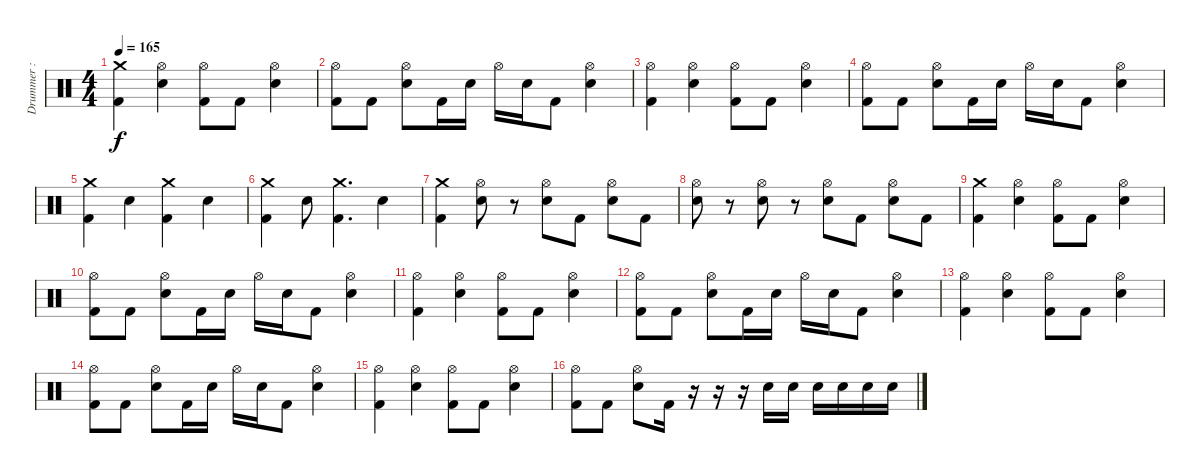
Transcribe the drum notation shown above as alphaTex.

\track ("Drummer : Tainaka Ritsu - Chan" "Drummer : ") {instrument percussion}
\staff {score}
\articulation defaults
\ts (4 4)
\tempo 165
\clef neutral
\ks c
("Crash medium (hit)" "Kick (hit) 2").4{dy f} ("Hi-Hat (open)" "Electric Snare (hit)").4 ("Hi-Hat (open)" "Kick (hit) 2").8 "Kick (hit) 2".8 ("Hi-Hat (open)" "Electric Snare (hit)").4 |
("Hi-Hat (open)" "Kick (hit) 2").8 "Kick (hit) 2".8 ("Hi-Hat (open)" "Electric Snare (hit)").8 "Kick (hit) 2".16 "Electric Snare (hit)".16 "Hi-Hat (open)".16 "Electric Snare (hit)".16 "Kick (hit) 2".8 ("Hi-Hat (open)" "Electric Snare (hit)").4 |
("Hi-Hat (open)" "Kick (hit) 2").4 ("Hi-Hat (open)" "Electric Snare (hit)").4 ("Hi-Hat (open)" "Kick (hit) 2").8 "Kick (hit) 2".8 ("Hi-Hat (open)" "Electric Snare (hit)").4 |
("Hi-Hat (open)" "Kick (hit) 2").8 "Kick (hit) 2".8 ("Hi-Hat (open)" "Electric Snare (hit)").8 "Kick (hit) 2".16 "Electric Snare (hit)".16 "Hi-Hat (open)".16 "Electric Snare (hit)".16 "Kick (hit) 2".8 ("Hi-Hat (open)" "Electric Snare (hit)").4 |
("Crash medium (hit)" "Kick (hit) 2").4 "Electric Snare (hit)".4 ("Crash medium (hit)" "Kick (hit) 2").4 "Electric Snare (hit)".4 |
("Crash medium (hit)" "Kick (hit) 2").4 "Electric Snare (hit)".8 ("Crash medium (hit)" "Kick (hit) 2").4{d} "Electric Snare (hit)".4 |
("Crash medium (hit)" "Kick (hit) 2").4 ("Hi-Hat (open)" "Electric Snare (hit)").8 r.8 ("Hi-Hat (open)" "Electric Snare (hit)").8 "Kick (hit) 2".8 ("Hi-Hat (open)" "Electric Snare (hit)").8 "Kick (hit) 2".8 |
("Hi-Hat (open)" "Electric Snare (hit)").8 r.8 ("Hi-Hat (open)" "Electric Snare (hit)").8 r.8 ("Hi-Hat (open)" "Electric Snare (hit)").8 "Kick (hit) 2".8 ("Hi-Hat (open)" "Electric Snare (hit)").8 "Kick (hit) 2".8 |
("Crash medium (hit)" "Kick (hit) 2").4 ("Hi-Hat (open)" "Electric Snare (hit)").4 ("Hi-Hat (open)" "Kick (hit) 2").8 "Kick (hit) 2".8 ("Hi-Hat (open)" "Electric Snare (hit)").4 |
("Hi-Hat (open)" "Kick (hit) 2").8 "Kick (hit) 2".8 ("Hi-Hat (open)" "Electric Snare (hit)").8 "Kick (hit) 2".16 "Electric Snare (hit)".16 "Hi-Hat (open)".16 "Electric Snare (hit)".16 "Kick (hit) 2".8 ("Hi-Hat (open)" "Electric Snare (hit)").4 |
("Hi-Hat (open)" "Kick (hit) 2").4 ("Hi-Hat (open)" "Electric Snare (hit)").4 ("Hi-Hat (open)" "Kick (hit) 2").8 "Kick (hit) 2".8 ("Hi-Hat (open)" "Electric Snare (hit)").4 |
("Hi-Hat (open)" "Kick (hit) 2").8 "Kick (hit) 2".8 ("Hi-Hat (open)" "Electric Snare (hit)").8 "Kick (hit) 2".16 "Electric Snare (hit)".16 "Hi-Hat (open)".16 "Electric Snare (hit)".16 "Kick (hit) 2".8 ("Hi-Hat (open)" "Electric Snare (hit)").4 |
("Hi-Hat (open)" "Kick (hit) 2").4 ("Hi-Hat (open)" "Electric Snare (hit)").4 ("Hi-Hat (open)" "Kick (hit) 2").8 "Kick (hit) 2".8 ("Hi-Hat (open)" "Electric Snare (hit)").4 |
("Hi-Hat (open)" "Kick (hit) 2").8 "Kick (hit) 2".8 ("Hi-Hat (open)" "Electric Snare (hit)").8 "Kick (hit) 2".16 "Electric Snare (hit)".16 "Hi-Hat (open)".16 "Electric Snare (hit)".16 "Kick (hit) 2".8 ("Hi-Hat (open)" "Electric Snare (hit)").4 |
("Hi-Hat (open)" "Kick (hit) 2").4 ("Hi-Hat (open)" "Electric Snare (hit)").4 ("Hi-Hat (open)" "Kick (hit) 2").8 "Kick (hit) 2".8 ("Hi-Hat (open)" "Electric Snare (hit)").4 |
("Hi-Hat (open)" "Kick (hit) 2").8 "Kick (hit) 2".8 ("Hi-Hat (open)" "Electric Snare (hit)").8 "Kick (hit) 2".16 r.16 r.16 r.16 "Electric Snare (hit)".16 "Electric Snare (hit)".16 "Electric Snare (hit)".16 "Electric Snare (hit)".16 "Electric Snare (hit)".16 "Electric Snare (hit)".16
